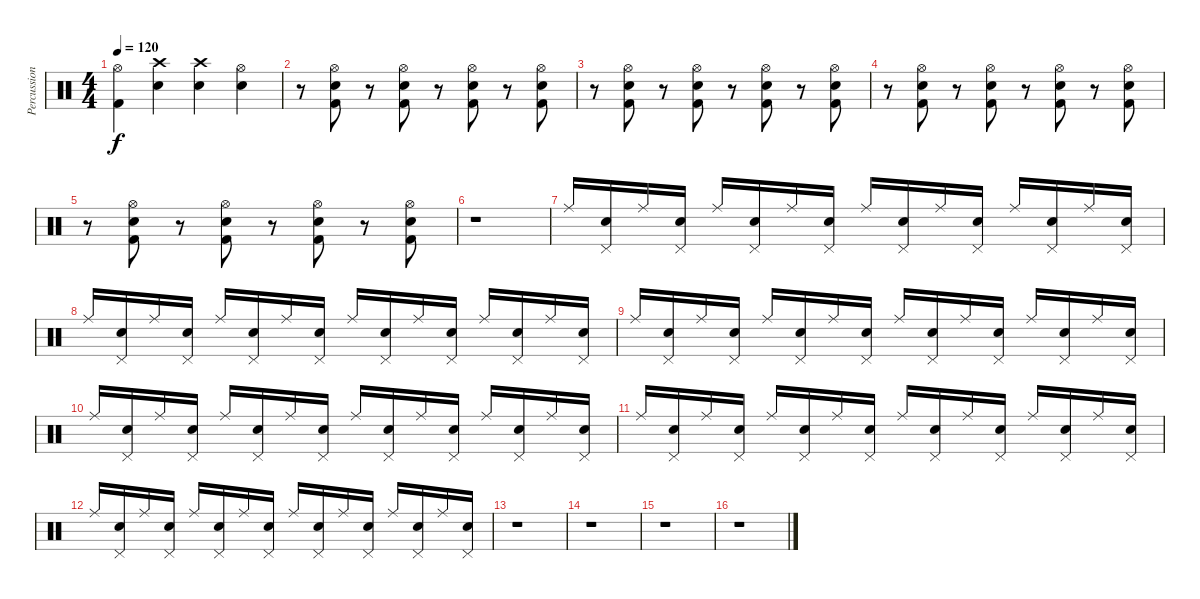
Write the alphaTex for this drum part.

\track ("Percussions" "Percussion") {instrument percussion}
\staff {score}
\articulation defaults
\ts (4 4)
\tempo 120
\clef neutral
\ks c
("Hi-Hat (open)" "Kick (hit) 2").4{dy f} ("Metronome (bell)" "Crash high (hit)").4 ("Crash high (hit)" "Metronome (bell)").4 ("Hi-Hat (open)" "Metronome (bell)").4 |
r.8 ("Hi-Hat (open)" "Kick (hit) 2" "Electric Snare (hit)").8 r.8 ("Hi-Hat (open)" "Kick (hit) 2" "Electric Snare (hit)").8 r.8 ("Hi-Hat (open)" "Kick (hit) 2" "Electric Snare (hit)").8 r.8 ("Hi-Hat (open)" "Kick (hit) 2" "Electric Snare (hit)").8 |
r.8 ("Hi-Hat (open)" "Kick (hit) 2" "Electric Snare (hit)").8 r.8 ("Hi-Hat (open)" "Kick (hit) 2" "Electric Snare (hit)").8 r.8 ("Hi-Hat (open)" "Kick (hit) 2" "Electric Snare (hit)").8 r.8 ("Hi-Hat (open)" "Kick (hit) 2" "Electric Snare (hit)").8 |
r.8 ("Hi-Hat (open)" "Kick (hit) 2" "Electric Snare (hit)").8 r.8 ("Hi-Hat (open)" "Kick (hit) 2" "Electric Snare (hit)").8 r.8 ("Hi-Hat (open)" "Kick (hit) 2" "Electric Snare (hit)").8 r.8 ("Hi-Hat (open)" "Kick (hit) 2" "Electric Snare (hit)").8 |
r.8 ("Hi-Hat (open)" "Kick (hit) 2" "Electric Snare (hit)").8 r.8 ("Hi-Hat (open)" "Kick (hit) 2" "Electric Snare (hit)").8 r.8 ("Hi-Hat (open)" "Kick (hit) 2" "Electric Snare (hit)").8 r.8 ("Hi-Hat (open)" "Kick (hit) 2" "Electric Snare (hit)").8 |
r.1 |
"Ride (middle)".16 ("Pedal Hi-Hat (hit)" "Electric Snare (hit)").16 "Ride (middle)".16 ("Pedal Hi-Hat (hit)" "Electric Snare (hit)").16 "Ride (middle)".16 ("Pedal Hi-Hat (hit)" "Electric Snare (hit)").16 "Ride (middle)".16 ("Pedal Hi-Hat (hit)" "Electric Snare (hit)").16 "Ride (middle)".16 ("Pedal Hi-Hat (hit)" "Electric Snare (hit)").16 "Ride (middle)".16 ("Pedal Hi-Hat (hit)" "Electric Snare (hit)").16 "Ride (middle)".16 ("Pedal Hi-Hat (hit)" "Electric Snare (hit)").16 "Ride (middle)".16 ("Pedal Hi-Hat (hit)" "Electric Snare (hit)").16 |
"Ride (middle)".16 ("Pedal Hi-Hat (hit)" "Electric Snare (hit)").16 "Ride (middle)".16 ("Pedal Hi-Hat (hit)" "Electric Snare (hit)").16 "Ride (middle)".16 ("Pedal Hi-Hat (hit)" "Electric Snare (hit)").16 "Ride (middle)".16 ("Pedal Hi-Hat (hit)" "Electric Snare (hit)").16 "Ride (middle)".16 ("Pedal Hi-Hat (hit)" "Electric Snare (hit)").16 "Ride (middle)".16 ("Pedal Hi-Hat (hit)" "Electric Snare (hit)").16 "Ride (middle)".16 ("Pedal Hi-Hat (hit)" "Electric Snare (hit)").16 "Ride (middle)".16 ("Pedal Hi-Hat (hit)" "Electric Snare (hit)").16 |
"Ride (middle)".16 ("Pedal Hi-Hat (hit)" "Electric Snare (hit)").16 "Ride (middle)".16 ("Pedal Hi-Hat (hit)" "Electric Snare (hit)").16 "Ride (middle)".16 ("Pedal Hi-Hat (hit)" "Electric Snare (hit)").16 "Ride (middle)".16 ("Pedal Hi-Hat (hit)" "Electric Snare (hit)").16 "Ride (middle)".16 ("Pedal Hi-Hat (hit)" "Electric Snare (hit)").16 "Ride (middle)".16 ("Pedal Hi-Hat (hit)" "Electric Snare (hit)").16 "Ride (middle)".16 ("Pedal Hi-Hat (hit)" "Electric Snare (hit)").16 "Ride (middle)".16 ("Pedal Hi-Hat (hit)" "Electric Snare (hit)").16 |
"Ride (middle)".16 ("Pedal Hi-Hat (hit)" "Electric Snare (hit)").16 "Ride (middle)".16 ("Pedal Hi-Hat (hit)" "Electric Snare (hit)").16 "Ride (middle)".16 ("Pedal Hi-Hat (hit)" "Electric Snare (hit)").16 "Ride (middle)".16 ("Pedal Hi-Hat (hit)" "Electric Snare (hit)").16 "Ride (middle)".16 ("Pedal Hi-Hat (hit)" "Electric Snare (hit)").16 "Ride (middle)".16 ("Pedal Hi-Hat (hit)" "Electric Snare (hit)").16 "Ride (middle)".16 ("Pedal Hi-Hat (hit)" "Electric Snare (hit)").16 "Ride (middle)".16 ("Pedal Hi-Hat (hit)" "Electric Snare (hit)").16 |
"Ride (middle)".16{volume 2} ("Pedal Hi-Hat (hit)" "Electric Snare (hit)").16 "Ride (middle)".16 ("Pedal Hi-Hat (hit)" "Electric Snare (hit)").16 "Ride (middle)".16 ("Pedal Hi-Hat (hit)" "Electric Snare (hit)").16 "Ride (middle)".16 ("Pedal Hi-Hat (hit)" "Electric Snare (hit)").16 "Ride (middle)".16 ("Pedal Hi-Hat (hit)" "Electric Snare (hit)").16 "Ride (middle)".16 ("Pedal Hi-Hat (hit)" "Electric Snare (hit)").16 "Ride (middle)".16 ("Pedal Hi-Hat (hit)" "Electric Snare (hit)").16 "Ride (middle)".16 ("Pedal Hi-Hat (hit)" "Electric Snare (hit)").16 |
"Ride (middle)".16 ("Pedal Hi-Hat (hit)" "Electric Snare (hit)").16 "Ride (middle)".16 ("Pedal Hi-Hat (hit)" "Electric Snare (hit)").16 "Ride (middle)".16 ("Pedal Hi-Hat (hit)" "Electric Snare (hit)").16 "Ride (middle)".16 ("Pedal Hi-Hat (hit)" "Electric Snare (hit)").16 "Ride (middle)".16 ("Pedal Hi-Hat (hit)" "Electric Snare (hit)").16 "Ride (middle)".16 ("Pedal Hi-Hat (hit)" "Electric Snare (hit)").16 "Ride (middle)".16 ("Pedal Hi-Hat (hit)" "Electric Snare (hit)").16 "Ride (middle)".16 ("Pedal Hi-Hat (hit)" "Electric Snare (hit)").16 |
r.1 |
r.1 |
r.1 |
r.1
